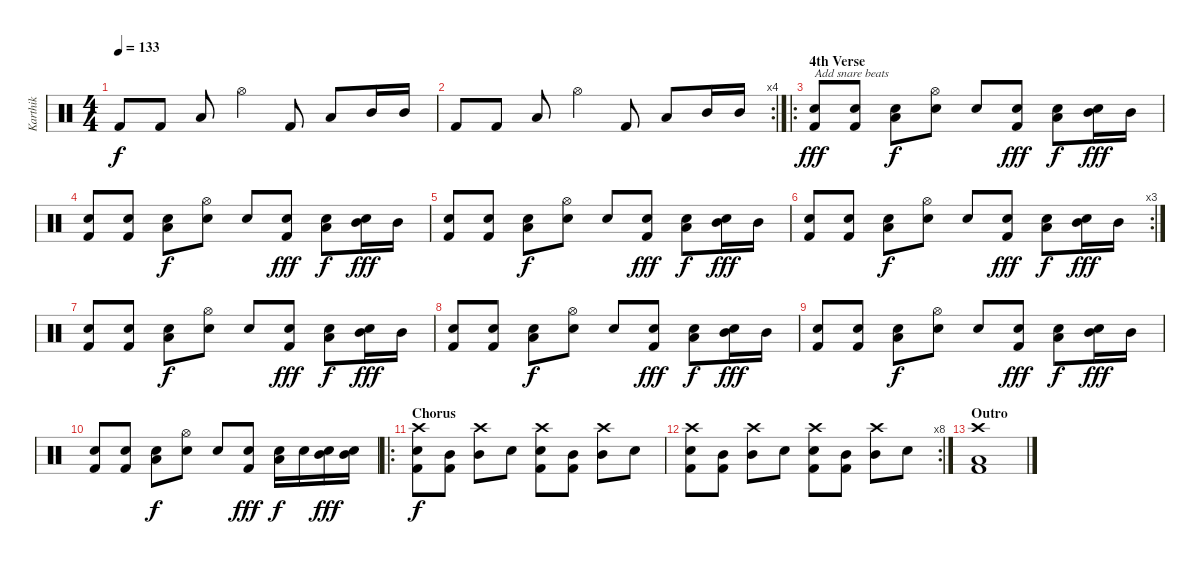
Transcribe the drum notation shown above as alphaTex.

\track ("Karthik" "Karthik") {instrument percussion}
\staff {score}
\articulation defaults
\ts (4 4)
\tempo 133
\clef neutral
\ks c "Kick (hit) 2".8{dy f} "Kick (hit) 2".8 "Low Tom (hit)".8 "Hi-Hat (open)".4 "Kick (hit) 2".8 "Low Tom (hit)".8 "Mid Tom (hit)".16 "Mid Tom (hit)".16
|
\rc 4 "Kick (hit) 2".8 "Kick (hit) 2".8 "Low Tom (hit)".8 "Hi-Hat (open)".4 "Kick (hit) 2".8 "Low Tom (hit)".8 "Mid Tom (hit)".16 "Mid Tom (hit)".16
|
\ro
\section ("" "4th Verse")
("Kick (hit) 2" "Snare (hit) 2").8{txt "Add snare beats" dy fff volume 16} ("Kick (hit) 2" "Electric Snare (hit)").8 ("Low Tom (hit)" "Electric Snare (hit)").8{dy f} ("Hi-Hat (open)" "Snare (hit) 2").8 "Electric Snare (hit)".8 ("Kick (hit) 2" "Electric Snare (hit)").8{dy fff} ("Low Tom (hit)" "Snare (hit) 2").8{dy f} ("Mid Tom (hit)" "Snare (hit) 2").16{dy fff} "Mid Tom (hit)".16 |
("Kick (hit) 2" "Snare (hit) 2").8 ("Kick (hit) 2" "Electric Snare (hit)").8 ("Low Tom (hit)" "Electric Snare (hit)").8{dy f} ("Hi-Hat (open)" "Snare (hit) 2").8 "Electric Snare (hit)".8 ("Kick (hit) 2" "Electric Snare (hit)").8{dy fff} ("Low Tom (hit)" "Snare (hit) 2").8{dy f} ("Mid Tom (hit)" "Snare (hit) 2").16{dy fff} "Mid Tom (hit)".16 |
("Kick (hit) 2" "Snare (hit) 2").8 ("Kick (hit) 2" "Electric Snare (hit)").8 ("Low Tom (hit)" "Electric Snare (hit)").8{dy f} ("Hi-Hat (open)" "Snare (hit) 2").8 "Electric Snare (hit)".8 ("Kick (hit) 2" "Electric Snare (hit)").8{dy fff} ("Low Tom (hit)" "Snare (hit) 2").8{dy f} ("Mid Tom (hit)" "Snare (hit) 2").16{dy fff} "Mid Tom (hit)".16 |
\rc 3
("Kick (hit) 2" "Snare (hit) 2").8 ("Kick (hit) 2" "Electric Snare (hit)").8 ("Low Tom (hit)" "Electric Snare (hit)").8{dy f} ("Hi-Hat (open)" "Snare (hit) 2").8 "Electric Snare (hit)".8 ("Kick (hit) 2" "Electric Snare (hit)").8{dy fff} ("Low Tom (hit)" "Snare (hit) 2").8{dy f} ("Mid Tom (hit)" "Snare (hit) 2").16{dy fff} "Mid Tom (hit)".16 |
("Kick (hit) 2" "Snare (hit) 2").8 ("Kick (hit) 2" "Electric Snare (hit)").8 ("Low Tom (hit)" "Electric Snare (hit)").8{dy f} ("Hi-Hat (open)" "Snare (hit) 2").8 "Electric Snare (hit)".8 ("Kick (hit) 2" "Electric Snare (hit)").8{dy fff} ("Low Tom (hit)" "Snare (hit) 2").8{dy f} ("Mid Tom (hit)" "Snare (hit) 2").16{dy fff} "Mid Tom (hit)".16 |
("Kick (hit) 2" "Snare (hit) 2").8 ("Kick (hit) 2" "Electric Snare (hit)").8 ("Low Tom (hit)" "Electric Snare (hit)").8{dy f} ("Hi-Hat (open)" "Snare (hit) 2").8 "Electric Snare (hit)".8 ("Kick (hit) 2" "Electric Snare (hit)").8{dy fff} ("Low Tom (hit)" "Snare (hit) 2").8{dy f} ("Mid Tom (hit)" "Snare (hit) 2").16{dy fff} "Mid Tom (hit)".16 |
("Kick (hit) 2" "Snare (hit) 2").8 ("Kick (hit) 2" "Electric Snare (hit)").8 ("Low Tom (hit)" "Electric Snare (hit)").8{dy f} ("Hi-Hat (open)" "Snare (hit) 2").8 "Electric Snare (hit)".8 ("Kick (hit) 2" "Electric Snare (hit)").8{dy fff} ("Low Tom (hit)" "Snare (hit) 2").8{dy f} ("Mid Tom (hit)" "Snare (hit) 2").16{dy fff} "Mid Tom (hit)".16 |
("Kick (hit) 2" "Snare (hit) 2").8 ("Kick (hit) 2" "Electric Snare (hit)").8 ("Low Tom (hit)" "Snare (hit) 2").8{dy f} ("Hi-Hat (open)" "Electric Snare (hit)").8 "Snare (hit) 2".8 ("Kick (hit) 2" "Electric Snare (hit)").8{dy fff} ("Low Tom (hit)" "Snare (hit) 2").16{dy f} "Snare (hit) 2".16 ("Mid Tom (hit)" "Snare (hit) 2").16{dy fff} ("Mid Tom (hit)" "Snare (hit) 2").16 |
\ro
\section ("" "Chorus")
("Crash high (hit)" "Snare (hit) 2" "Kick (hit) 2").8{dy f} ("Mid Tom (hit)" "Kick (hit) 2").8 ("Crash high (hit)" "Mid Tom (hit)").8 "Electric Snare (hit)".8 ("Crash high (hit)" "Snare (hit) 2" "Kick (hit) 2").8 ("Mid Tom (hit)" "Kick (hit) 2").8 ("Crash high (hit)" "Mid Tom (hit)").8 "Snare (hit) 2".8 |
\rc 8
("Crash high (hit)" "Snare (hit) 2" "Kick (hit) 2").8 ("Mid Tom (hit)" "Kick (hit) 2").8 ("Crash high (hit)" "Mid Tom (hit)").8 "Electric Snare (hit)".8 ("Crash high (hit)" "Snare (hit) 2" "Kick (hit) 2").8 ("Mid Tom (hit)" "Kick (hit) 2").8 ("Crash high (hit)" "Mid Tom (hit)").8 "Snare (hit) 2".8 |
\section ("" "Outro")
("Crash high (hit)" "Low Tom (hit)" "Kick (hit) 2").1
